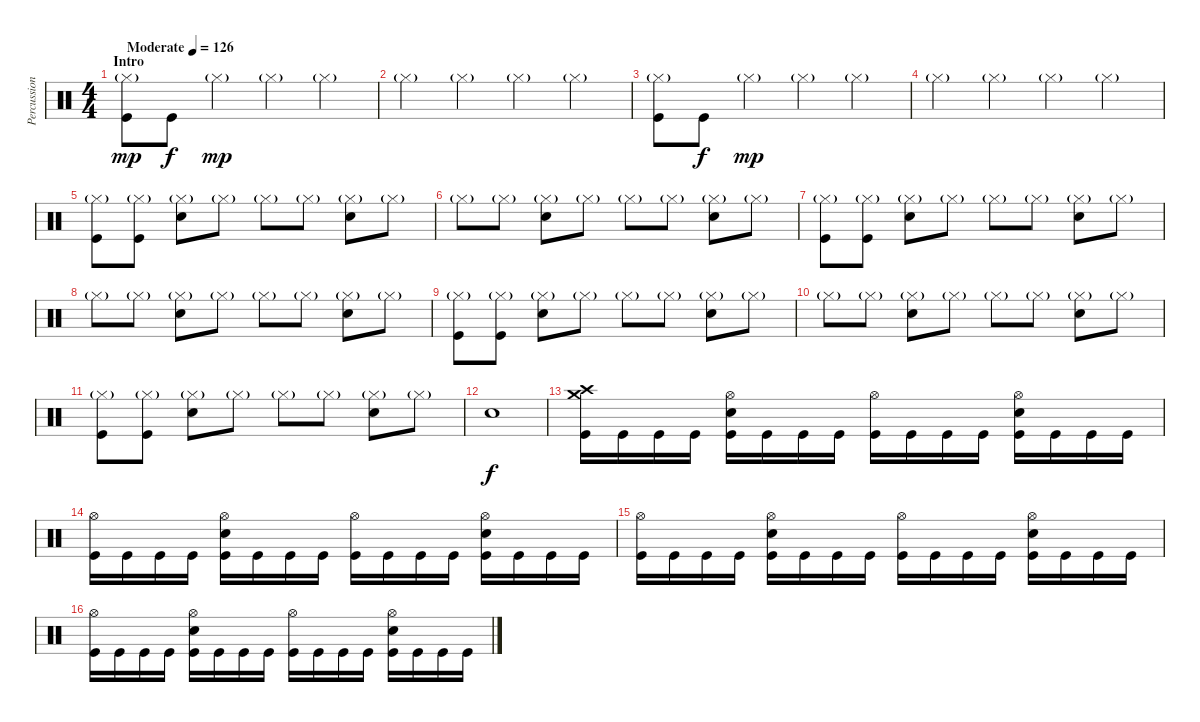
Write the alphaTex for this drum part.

\track ("Percussion" "Percussion") {instrument percussion}
\staff {score}
\articulation defaults
\ts (4 4)
\section ("" "Intro")
\tempo (126 "Moderate")
\clef neutral
\ks c
("Hi-Hat (closed)"{g} "Kick (hit)").8{dy mp} "Kick (hit)".8{dy f} "Hi-Hat (closed)"{g}.4{dy mp} "Hi-Hat (closed)"{g}.4 "Hi-Hat (closed)"{g}.4 |
"Hi-Hat (closed)"{g}.4 "Hi-Hat (closed)"{g}.4 "Hi-Hat (closed)"{g}.4 "Hi-Hat (closed)"{g}.4 |
("Hi-Hat (closed)"{g} "Kick (hit)").8 "Kick (hit)".8{dy f} "Hi-Hat (closed)"{g}.4{dy mp} "Hi-Hat (closed)"{g}.4 "Hi-Hat (closed)"{g}.4 |
"Hi-Hat (closed)"{g}.4 "Hi-Hat (closed)"{g}.4 "Hi-Hat (closed)"{g}.4 "Hi-Hat (closed)"{g}.4 |
("Hi-Hat (closed)"{g} "Kick (hit)").8 ("Hi-Hat (closed)"{g} "Kick (hit)").8 ("Hi-Hat (closed)"{g} "Electric Snare (hit)").8 "Hi-Hat (closed)"{g}.8 "Hi-Hat (closed)"{g}.8 "Hi-Hat (closed)"{g}.8 ("Hi-Hat (closed)"{g} "Electric Snare (hit)").8 "Hi-Hat (closed)"{g}.8 |
"Hi-Hat (closed)"{g}.8 "Hi-Hat (closed)"{g}.8 ("Hi-Hat (closed)"{g} "Electric Snare (hit)").8 "Hi-Hat (closed)"{g}.8 "Hi-Hat (closed)"{g}.8 "Hi-Hat (closed)"{g}.8 ("Hi-Hat (closed)"{g} "Electric Snare (hit)").8 "Hi-Hat (closed)"{g}.8 |
("Hi-Hat (closed)"{g} "Kick (hit)").8 ("Hi-Hat (closed)"{g} "Kick (hit)").8 ("Hi-Hat (closed)"{g} "Electric Snare (hit)").8 "Hi-Hat (closed)"{g}.8 "Hi-Hat (closed)"{g}.8 "Hi-Hat (closed)"{g}.8 ("Hi-Hat (closed)"{g} "Electric Snare (hit)").8 "Hi-Hat (closed)"{g}.8 |
"Hi-Hat (closed)"{g}.8 "Hi-Hat (closed)"{g}.8 ("Hi-Hat (closed)"{g} "Electric Snare (hit)").8 "Hi-Hat (closed)"{g}.8 "Hi-Hat (closed)"{g}.8 "Hi-Hat (closed)"{g}.8 ("Hi-Hat (closed)"{g} "Electric Snare (hit)").8 "Hi-Hat (closed)"{g}.8 |
("Hi-Hat (closed)"{g} "Kick (hit)").8 ("Hi-Hat (closed)"{g} "Kick (hit)").8 ("Hi-Hat (closed)"{g} "Electric Snare (hit)").8 "Hi-Hat (closed)"{g}.8 "Hi-Hat (closed)"{g}.8 "Hi-Hat (closed)"{g}.8 ("Hi-Hat (closed)"{g} "Electric Snare (hit)").8 "Hi-Hat (closed)"{g}.8 |
"Hi-Hat (closed)"{g}.8 "Hi-Hat (closed)"{g}.8 ("Hi-Hat (closed)"{g} "Electric Snare (hit)").8 "Hi-Hat (closed)"{g}.8 "Hi-Hat (closed)"{g}.8 "Hi-Hat (closed)"{g}.8 ("Hi-Hat (closed)"{g} "Electric Snare (hit)").8 "Hi-Hat (closed)"{g}.8 |
("Hi-Hat (closed)"{g} "Kick (hit)").8 ("Hi-Hat (closed)"{g} "Kick (hit)").8 ("Hi-Hat (closed)"{g} "Electric Snare (hit)").8 "Hi-Hat (closed)"{g}.8 "Hi-Hat (closed)"{g}.8 "Hi-Hat (closed)"{g}.8 ("Hi-Hat (closed)"{g} "Electric Snare (hit)").8 "Hi-Hat (closed)"{g}.8 |
"Electric Snare (hit)".1{dy f} |
("Crash high (hit)" "Crash medium (hit)" "Kick (hit)").16 "Kick (hit)".16 "Kick (hit)".16 "Kick (hit)".16 ("Hi-Hat (open)" "Electric Snare (hit)" "Kick (hit)").16 "Kick (hit)".16 "Kick (hit)".16 "Kick (hit)".16 ("Hi-Hat (open)" "Kick (hit)").16 "Kick (hit)".16 "Kick (hit)".16 "Kick (hit)".16 ("Hi-Hat (open)" "Electric Snare (hit)" "Kick (hit)").16 "Kick (hit)".16 "Kick (hit)".16 "Kick (hit)".16 |
("Hi-Hat (open)" "Kick (hit)").16 "Kick (hit)".16 "Kick (hit)".16 "Kick (hit)".16 ("Hi-Hat (open)" "Electric Snare (hit)" "Kick (hit)").16 "Kick (hit)".16 "Kick (hit)".16 "Kick (hit)".16 ("Hi-Hat (open)" "Kick (hit)").16 "Kick (hit)".16 "Kick (hit)".16 "Kick (hit)".16 ("Hi-Hat (open)" "Electric Snare (hit)" "Kick (hit)").16 "Kick (hit)".16 "Kick (hit)".16 "Kick (hit)".16 |
("Hi-Hat (open)" "Kick (hit)").16 "Kick (hit)".16 "Kick (hit)".16 "Kick (hit)".16 ("Hi-Hat (open)" "Electric Snare (hit)" "Kick (hit)").16 "Kick (hit)".16 "Kick (hit)".16 "Kick (hit)".16 ("Hi-Hat (open)" "Kick (hit)").16 "Kick (hit)".16 "Kick (hit)".16 "Kick (hit)".16 ("Hi-Hat (open)" "Electric Snare (hit)" "Kick (hit)").16 "Kick (hit)".16 "Kick (hit)".16 "Kick (hit)".16 |
("Hi-Hat (open)" "Kick (hit)").16 "Kick (hit)".16 "Kick (hit)".16 "Kick (hit)".16 ("Hi-Hat (open)" "Electric Snare (hit)" "Kick (hit)").16 "Kick (hit)".16 "Kick (hit)".16 "Kick (hit)".16 ("Hi-Hat (open)" "Kick (hit)").16 "Kick (hit)".16 "Kick (hit)".16 "Kick (hit)".16 ("Hi-Hat (open)" "Electric Snare (hit)" "Kick (hit)").16 "Kick (hit)".16 "Kick (hit)".16 "Kick (hit)".16
